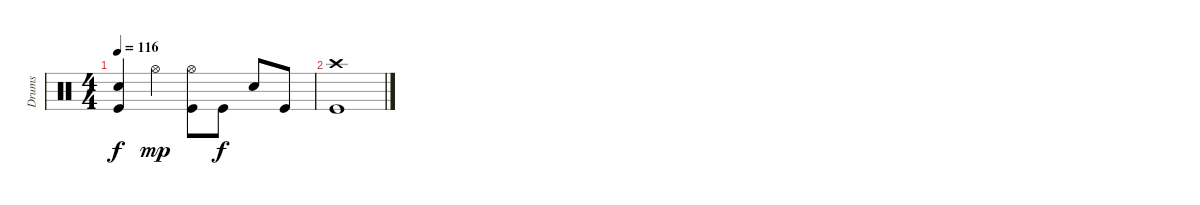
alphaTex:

\track ("Drums" "Drums") {instrument percussion}
\staff {score}
\articulation defaults
\ts (4 4)
\tempo 116
\clef neutral
\ks c
("Electric Snare (hit)" "Kick (hit)").4{dy f} "Hi-Hat (open)".4{dy mp} ("Hi-Hat (open)" "Kick (hit)").8 "Kick (hit)".8{dy f} "Electric Snare (hit)".8 "Kick (hit)".8 |
("Crash high (hit)" "Kick (hit)").1
